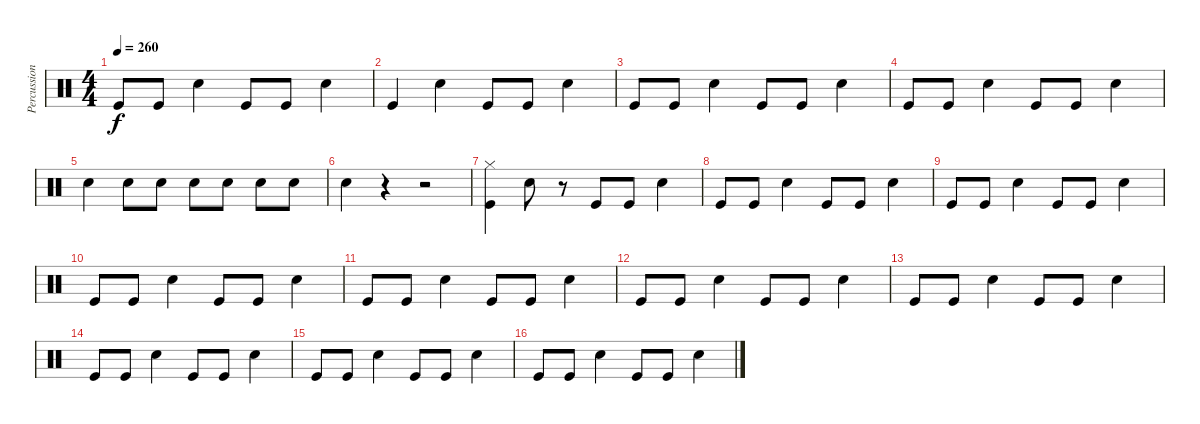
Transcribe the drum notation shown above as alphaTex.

\track ("Percussion" "Percussion") {instrument percussion}
\staff {score}
\articulation defaults
\ts (4 4)
\tempo 260
\clef neutral
\ks c "Kick (hit)".8{dy f} "Kick (hit)".8 "Snare (hit) 2".4 "Kick (hit)".8 "Kick (hit)".8 "Snare (hit) 2".4
|
"Kick (hit)".4 "Snare (hit) 2".4 "Kick (hit)".8 "Kick (hit)".8 "Snare (hit) 2".4 |
"Kick (hit)".8 "Kick (hit)".8 "Snare (hit) 2".4 "Kick (hit)".8 "Kick (hit)".8 "Snare (hit) 2".4 |
"Kick (hit)".8 "Kick (hit)".8 "Snare (hit) 2".4 "Kick (hit)".8 "Kick (hit)".8 "Snare (hit) 2".4 |
"Snare (hit) 2".4 "Snare (hit) 2".8 "Snare (hit) 2".8 "Snare (hit) 2".8 "Snare (hit) 2".8 "Snare (hit) 2".8 "Snare (hit) 2".8 |
"Snare (hit) 2".4 r.4 r.2 |
("Hi-Hat (closed)" "Kick (hit)").4 "Electric Snare (hit)".8 r.8 "Kick (hit)".8 "Kick (hit)".8 "Snare (hit) 2".4 |
"Kick (hit)".8 "Kick (hit)".8 "Electric Snare (hit)".4 "Kick (hit)".8 "Kick (hit)".8 "Electric Snare (hit)".4 |
"Kick (hit)".8 "Kick (hit)".8 "Electric Snare (hit)".4 "Kick (hit)".8 "Kick (hit)".8 "Electric Snare (hit)".4 |
"Kick (hit)".8 "Kick (hit)".8 "Electric Snare (hit)".4 "Kick (hit)".8 "Kick (hit)".8 "Electric Snare (hit)".4 |
"Kick (hit)".8 "Kick (hit)".8 "Electric Snare (hit)".4 "Kick (hit)".8 "Kick (hit)".8 "Electric Snare (hit)".4 |
"Kick (hit)".8 "Kick (hit)".8 "Electric Snare (hit)".4 "Kick (hit)".8 "Kick (hit)".8 "Electric Snare (hit)".4 |
"Kick (hit)".8 "Kick (hit)".8 "Electric Snare (hit)".4 "Kick (hit)".8 "Kick (hit)".8 "Electric Snare (hit)".4 |
"Kick (hit)".8 "Kick (hit)".8 "Electric Snare (hit)".4 "Kick (hit)".8 "Kick (hit)".8 "Electric Snare (hit)".4 |
"Kick (hit)".8 "Kick (hit)".8 "Electric Snare (hit)".4 "Kick (hit)".8 "Kick (hit)".8 "Electric Snare (hit)".4 |
"Kick (hit)".8 "Kick (hit)".8 "Electric Snare (hit)".4 "Kick (hit)".8 "Kick (hit)".8 "Electric Snare (hit)".4
